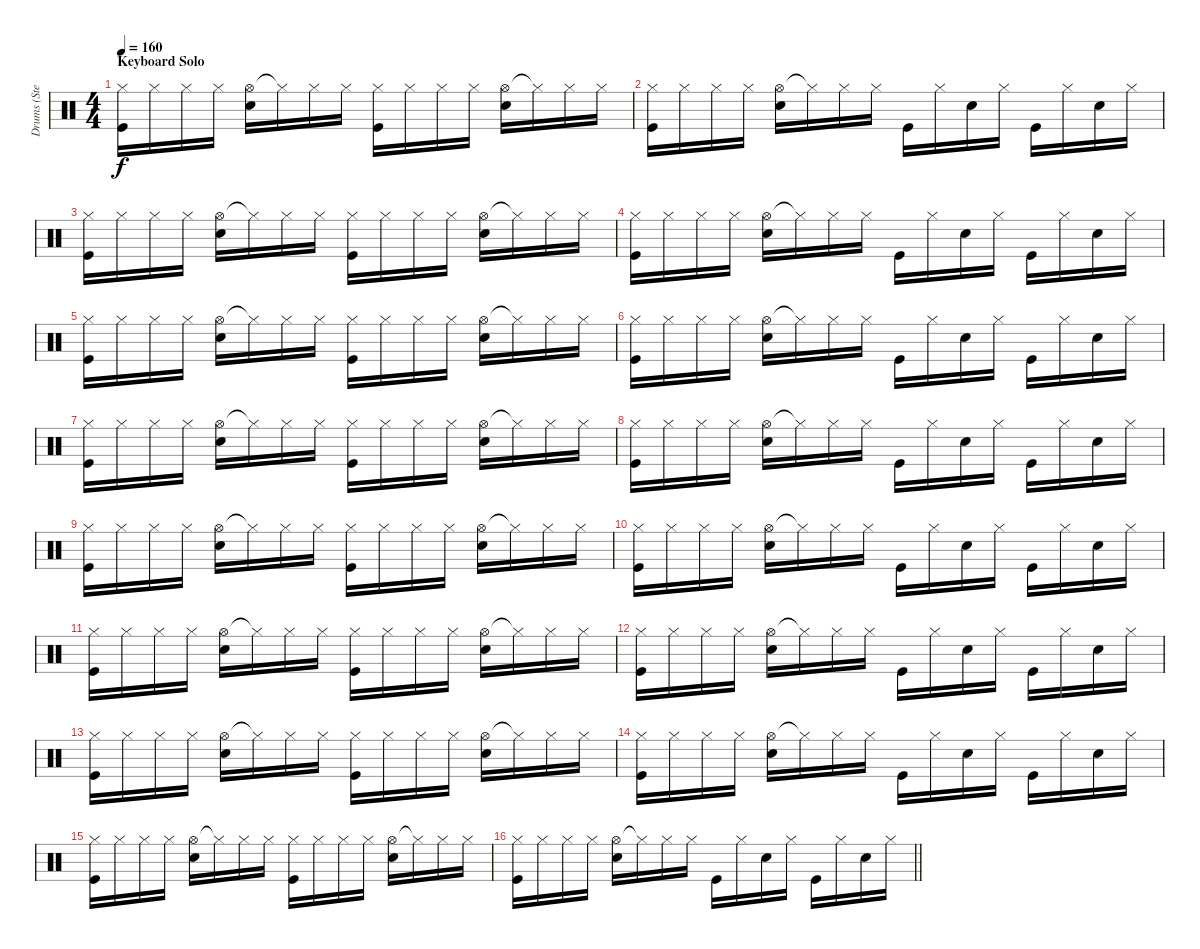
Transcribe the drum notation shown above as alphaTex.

\track ("Drums (Stephen Morris)" "Drums (Ste") {instrument percussion}
\staff {score}
\articulation defaults
\ts (4 4)
\section ("" "Keyboard Solo")
\tempo 160
\clef neutral
\ks c
("Hi-Hat (closed)" "Kick (hit)").16{dy f} "Hi-Hat (closed)".16 "Hi-Hat (closed)".16 "Hi-Hat (closed)".16 ("Hi-Hat (open)" "Electric Snare (hit)").16 "Hi-Hat (closed)"{t}.16 "Hi-Hat (closed)".16 "Hi-Hat (closed)".16 ("Hi-Hat (closed)" "Kick (hit)").16 "Hi-Hat (closed)".16 "Hi-Hat (closed)".16 "Hi-Hat (closed)".16 ("Hi-Hat (open)" "Electric Snare (hit)").16 "Hi-Hat (closed)"{t}.16 "Hi-Hat (closed)".16 "Hi-Hat (closed)".16 |
("Hi-Hat (closed)" "Kick (hit)").16 "Hi-Hat (closed)".16 "Hi-Hat (closed)".16 "Hi-Hat (closed)".16 ("Hi-Hat (open)" "Electric Snare (hit)").16 "Hi-Hat (closed)"{t}.16 "Hi-Hat (closed)".16 "Hi-Hat (closed)".16 "Kick (hit)".16 "Hi-Hat (closed)".16 "Electric Snare (hit)".16 "Hi-Hat (closed)".16 "Kick (hit)".16 "Hi-Hat (closed)".16 "Electric Snare (hit)".16 "Hi-Hat (closed)".16 |
("Hi-Hat (closed)" "Kick (hit)").16 "Hi-Hat (closed)".16 "Hi-Hat (closed)".16 "Hi-Hat (closed)".16 ("Hi-Hat (open)" "Electric Snare (hit)").16 "Hi-Hat (closed)"{t}.16 "Hi-Hat (closed)".16 "Hi-Hat (closed)".16 ("Hi-Hat (closed)" "Kick (hit)").16 "Hi-Hat (closed)".16 "Hi-Hat (closed)".16 "Hi-Hat (closed)".16 ("Hi-Hat (open)" "Electric Snare (hit)").16 "Hi-Hat (closed)"{t}.16 "Hi-Hat (closed)".16 "Hi-Hat (closed)".16 |
("Hi-Hat (closed)" "Kick (hit)").16 "Hi-Hat (closed)".16 "Hi-Hat (closed)".16 "Hi-Hat (closed)".16 ("Hi-Hat (open)" "Electric Snare (hit)").16 "Hi-Hat (closed)"{t}.16 "Hi-Hat (closed)".16 "Hi-Hat (closed)".16 "Kick (hit)".16 "Hi-Hat (closed)".16 "Electric Snare (hit)".16 "Hi-Hat (closed)".16 "Kick (hit)".16 "Hi-Hat (closed)".16 "Electric Snare (hit)".16 "Hi-Hat (closed)".16 |
("Hi-Hat (closed)" "Kick (hit)").16 "Hi-Hat (closed)".16 "Hi-Hat (closed)".16 "Hi-Hat (closed)".16 ("Hi-Hat (open)" "Electric Snare (hit)").16 "Hi-Hat (closed)"{t}.16 "Hi-Hat (closed)".16 "Hi-Hat (closed)".16 ("Hi-Hat (closed)" "Kick (hit)").16 "Hi-Hat (closed)".16 "Hi-Hat (closed)".16 "Hi-Hat (closed)".16 ("Hi-Hat (open)" "Electric Snare (hit)").16 "Hi-Hat (closed)"{t}.16 "Hi-Hat (closed)".16 "Hi-Hat (closed)".16 |
("Hi-Hat (closed)" "Kick (hit)").16 "Hi-Hat (closed)".16 "Hi-Hat (closed)".16 "Hi-Hat (closed)".16 ("Hi-Hat (open)" "Electric Snare (hit)").16 "Hi-Hat (closed)"{t}.16 "Hi-Hat (closed)".16 "Hi-Hat (closed)".16 "Kick (hit)".16 "Hi-Hat (closed)".16 "Electric Snare (hit)".16 "Hi-Hat (closed)".16 "Kick (hit)".16 "Hi-Hat (closed)".16 "Electric Snare (hit)".16 "Hi-Hat (closed)".16 |
("Hi-Hat (closed)" "Kick (hit)").16 "Hi-Hat (closed)".16 "Hi-Hat (closed)".16 "Hi-Hat (closed)".16 ("Hi-Hat (open)" "Electric Snare (hit)").16 "Hi-Hat (closed)"{t}.16 "Hi-Hat (closed)".16 "Hi-Hat (closed)".16 ("Hi-Hat (closed)" "Kick (hit)").16 "Hi-Hat (closed)".16 "Hi-Hat (closed)".16 "Hi-Hat (closed)".16 ("Hi-Hat (open)" "Electric Snare (hit)").16 "Hi-Hat (closed)"{t}.16 "Hi-Hat (closed)".16 "Hi-Hat (closed)".16 |
("Hi-Hat (closed)" "Kick (hit)").16 "Hi-Hat (closed)".16 "Hi-Hat (closed)".16 "Hi-Hat (closed)".16 ("Hi-Hat (open)" "Electric Snare (hit)").16 "Hi-Hat (closed)"{t}.16 "Hi-Hat (closed)".16 "Hi-Hat (closed)".16 "Kick (hit)".16 "Hi-Hat (closed)".16 "Electric Snare (hit)".16 "Hi-Hat (closed)".16 "Kick (hit)".16 "Hi-Hat (closed)".16 "Electric Snare (hit)".16 "Hi-Hat (closed)".16 |
("Hi-Hat (closed)" "Kick (hit)").16 "Hi-Hat (closed)".16 "Hi-Hat (closed)".16 "Hi-Hat (closed)".16 ("Hi-Hat (open)" "Electric Snare (hit)").16 "Hi-Hat (closed)"{t}.16 "Hi-Hat (closed)".16 "Hi-Hat (closed)".16 ("Hi-Hat (closed)" "Kick (hit)").16 "Hi-Hat (closed)".16 "Hi-Hat (closed)".16 "Hi-Hat (closed)".16 ("Hi-Hat (open)" "Electric Snare (hit)").16 "Hi-Hat (closed)"{t}.16 "Hi-Hat (closed)".16 "Hi-Hat (closed)".16 |
("Hi-Hat (closed)" "Kick (hit)").16 "Hi-Hat (closed)".16 "Hi-Hat (closed)".16 "Hi-Hat (closed)".16 ("Hi-Hat (open)" "Electric Snare (hit)").16 "Hi-Hat (closed)"{t}.16 "Hi-Hat (closed)".16 "Hi-Hat (closed)".16 "Kick (hit)".16 "Hi-Hat (closed)".16 "Electric Snare (hit)".16 "Hi-Hat (closed)".16 "Kick (hit)".16 "Hi-Hat (closed)".16 "Electric Snare (hit)".16 "Hi-Hat (closed)".16 |
("Hi-Hat (closed)" "Kick (hit)").16 "Hi-Hat (closed)".16 "Hi-Hat (closed)".16 "Hi-Hat (closed)".16 ("Hi-Hat (open)" "Electric Snare (hit)").16 "Hi-Hat (closed)"{t}.16 "Hi-Hat (closed)".16 "Hi-Hat (closed)".16 ("Hi-Hat (closed)" "Kick (hit)").16 "Hi-Hat (closed)".16 "Hi-Hat (closed)".16 "Hi-Hat (closed)".16 ("Hi-Hat (open)" "Electric Snare (hit)").16 "Hi-Hat (closed)"{t}.16 "Hi-Hat (closed)".16 "Hi-Hat (closed)".16 |
("Hi-Hat (closed)" "Kick (hit)").16 "Hi-Hat (closed)".16 "Hi-Hat (closed)".16 "Hi-Hat (closed)".16 ("Hi-Hat (open)" "Electric Snare (hit)").16 "Hi-Hat (closed)"{t}.16 "Hi-Hat (closed)".16 "Hi-Hat (closed)".16 "Kick (hit)".16 "Hi-Hat (closed)".16 "Electric Snare (hit)".16 "Hi-Hat (closed)".16 "Kick (hit)".16 "Hi-Hat (closed)".16 "Electric Snare (hit)".16 "Hi-Hat (closed)".16 |
("Hi-Hat (closed)" "Kick (hit)").16 "Hi-Hat (closed)".16 "Hi-Hat (closed)".16 "Hi-Hat (closed)".16 ("Hi-Hat (open)" "Electric Snare (hit)").16 "Hi-Hat (closed)"{t}.16 "Hi-Hat (closed)".16 "Hi-Hat (closed)".16 ("Hi-Hat (closed)" "Kick (hit)").16 "Hi-Hat (closed)".16 "Hi-Hat (closed)".16 "Hi-Hat (closed)".16 ("Hi-Hat (open)" "Electric Snare (hit)").16 "Hi-Hat (closed)"{t}.16 "Hi-Hat (closed)".16 "Hi-Hat (closed)".16 |
("Hi-Hat (closed)" "Kick (hit)").16 "Hi-Hat (closed)".16 "Hi-Hat (closed)".16 "Hi-Hat (closed)".16 ("Hi-Hat (open)" "Electric Snare (hit)").16 "Hi-Hat (closed)"{t}.16 "Hi-Hat (closed)".16 "Hi-Hat (closed)".16 "Kick (hit)".16 "Hi-Hat (closed)".16 "Electric Snare (hit)".16 "Hi-Hat (closed)".16 "Kick (hit)".16 "Hi-Hat (closed)".16 "Electric Snare (hit)".16 "Hi-Hat (closed)".16 |
("Hi-Hat (closed)" "Kick (hit)").16 "Hi-Hat (closed)".16 "Hi-Hat (closed)".16 "Hi-Hat (closed)".16 ("Hi-Hat (open)" "Electric Snare (hit)").16 "Hi-Hat (closed)"{t}.16 "Hi-Hat (closed)".16 "Hi-Hat (closed)".16 ("Hi-Hat (closed)" "Kick (hit)").16 "Hi-Hat (closed)".16 "Hi-Hat (closed)".16 "Hi-Hat (closed)".16 ("Hi-Hat (open)" "Electric Snare (hit)").16 "Hi-Hat (closed)"{t}.16 "Hi-Hat (closed)".16 "Hi-Hat (closed)".16 |
\barLineRight lightlight
("Hi-Hat (closed)" "Kick (hit)").16 "Hi-Hat (closed)".16 "Hi-Hat (closed)".16 "Hi-Hat (closed)".16 ("Hi-Hat (open)" "Electric Snare (hit)").16 "Hi-Hat (closed)"{t}.16 "Hi-Hat (closed)".16 "Hi-Hat (closed)".16 "Kick (hit)".16 "Hi-Hat (closed)".16 "Electric Snare (hit)".16 "Hi-Hat (closed)".16 "Kick (hit)".16 "Hi-Hat (closed)".16 "Electric Snare (hit)".16 "Hi-Hat (closed)".16
